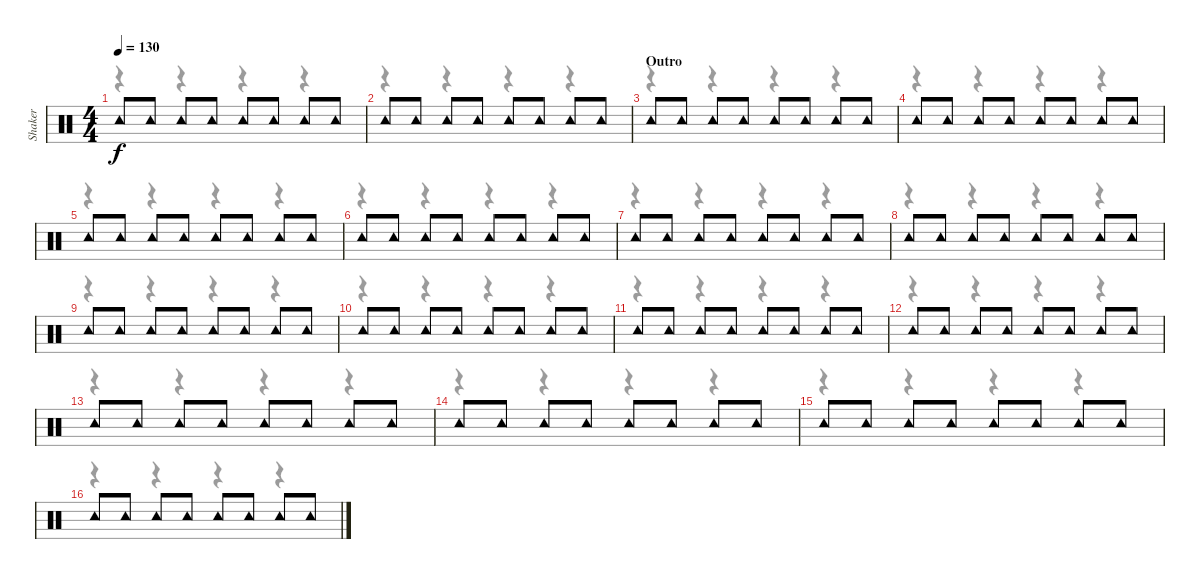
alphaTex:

\track ("Shaker" "Shaker") {instrument percussion}
\staff {score}
\articulation defaults
\voice
\ts (4 4)
\tempo 130
\clef neutral
\ks c "Tambourine (hit)".8{dy f} "Tambourine (hit)".8 "Tambourine (hit)".8 "Tambourine (hit)".8 "Tambourine (hit)".8 "Tambourine (hit)".8 "Tambourine (hit)".8 "Tambourine (hit)".8
|
"Tambourine (hit)".8 "Tambourine (hit)".8 "Tambourine (hit)".8 "Tambourine (hit)".8 "Tambourine (hit)".8 "Tambourine (hit)".8 "Tambourine (hit)".8 "Tambourine (hit)".8 |
\section ("" "Outro")
"Tambourine (hit)".8 "Tambourine (hit)".8 "Tambourine (hit)".8 "Tambourine (hit)".8 "Tambourine (hit)".8 "Tambourine (hit)".8 "Tambourine (hit)".8 "Tambourine (hit)".8 |
"Tambourine (hit)".8 "Tambourine (hit)".8 "Tambourine (hit)".8 "Tambourine (hit)".8 "Tambourine (hit)".8 "Tambourine (hit)".8 "Tambourine (hit)".8 "Tambourine (hit)".8 |
"Tambourine (hit)".8 "Tambourine (hit)".8 "Tambourine (hit)".8 "Tambourine (hit)".8 "Tambourine (hit)".8 "Tambourine (hit)".8 "Tambourine (hit)".8 "Tambourine (hit)".8 |
"Tambourine (hit)".8 "Tambourine (hit)".8 "Tambourine (hit)".8 "Tambourine (hit)".8 "Tambourine (hit)".8 "Tambourine (hit)".8 "Tambourine (hit)".8 "Tambourine (hit)".8 |
"Tambourine (hit)".8 "Tambourine (hit)".8 "Tambourine (hit)".8 "Tambourine (hit)".8 "Tambourine (hit)".8 "Tambourine (hit)".8 "Tambourine (hit)".8 "Tambourine (hit)".8 |
"Tambourine (hit)".8 "Tambourine (hit)".8 "Tambourine (hit)".8 "Tambourine (hit)".8 "Tambourine (hit)".8 "Tambourine (hit)".8 "Tambourine (hit)".8 "Tambourine (hit)".8 |
"Tambourine (hit)".8 "Tambourine (hit)".8 "Tambourine (hit)".8 "Tambourine (hit)".8 "Tambourine (hit)".8 "Tambourine (hit)".8 "Tambourine (hit)".8 "Tambourine (hit)".8 |
"Tambourine (hit)".8 "Tambourine (hit)".8 "Tambourine (hit)".8 "Tambourine (hit)".8 "Tambourine (hit)".8 "Tambourine (hit)".8 "Tambourine (hit)".8 "Tambourine (hit)".8 |
"Tambourine (hit)".8 "Tambourine (hit)".8 "Tambourine (hit)".8 "Tambourine (hit)".8 "Tambourine (hit)".8 "Tambourine (hit)".8 "Tambourine (hit)".8 "Tambourine (hit)".8 |
"Tambourine (hit)".8 "Tambourine (hit)".8 "Tambourine (hit)".8 "Tambourine (hit)".8 "Tambourine (hit)".8 "Tambourine (hit)".8 "Tambourine (hit)".8 "Tambourine (hit)".8 |
"Tambourine (hit)".8 "Tambourine (hit)".8 "Tambourine (hit)".8 "Tambourine (hit)".8 "Tambourine (hit)".8 "Tambourine (hit)".8 "Tambourine (hit)".8 "Tambourine (hit)".8 |
"Tambourine (hit)".8 "Tambourine (hit)".8 "Tambourine (hit)".8 "Tambourine (hit)".8 "Tambourine (hit)".8 "Tambourine (hit)".8 "Tambourine (hit)".8 "Tambourine (hit)".8 |
"Tambourine (hit)".8 "Tambourine (hit)".8 "Tambourine (hit)".8 "Tambourine (hit)".8 "Tambourine (hit)".8 "Tambourine (hit)".8 "Tambourine (hit)".8 "Tambourine (hit)".8 |
"Tambourine (hit)".8 "Tambourine (hit)".8 "Tambourine (hit)".8 "Tambourine (hit)".8 "Tambourine (hit)".8 "Tambourine (hit)".8 "Tambourine (hit)".8 "Tambourine (hit)".8
\voice
\clef neutral
\ottava regular
\simile none
\ks c
r.4{dy f} r.4 r.4 r.4 |
r.4 r.4 r.4 r.4 |
r.4 r.4 r.4 r.4 |
r.4 r.4 r.4 r.4 |
r.4 r.4 r.4 r.4 |
r.4 r.4 r.4 r.4 |
r.4 r.4 r.4 r.4 |
r.4 r.4 r.4 r.4 |
r.4 r.4 r.4 r.4 |
r.4 r.4 r.4 r.4 |
r.4 r.4 r.4 r.4 |
r.4 r.4 r.4 r.4 |
r.4 r.4 r.4 r.4 |
r.4 r.4 r.4 r.4 |
r.4 r.4 r.4 r.4 |
r.4 r.4 r.4 r.4
